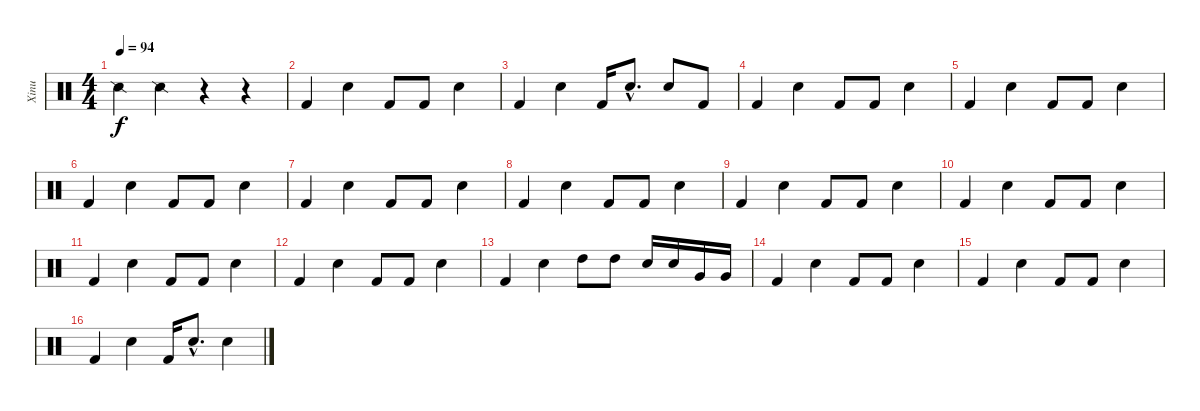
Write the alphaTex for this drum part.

\track ("Xinu" "Xinu") {instrument percussion}
\staff {score}
\articulation defaults
\ts (4 4)
\tempo 94
\clef neutral
\ks c "Snare (side stick) 2".4{dy f} "Snare (side stick) 2".4
r.4 r.4 |
"Kick (hit) 2".4 "Snare (hit) 2".4 "Kick (hit) 2".8 "Kick (hit) 2".8 "Snare (hit) 2".4 |
"Kick (hit) 2".4 "Snare (hit) 2".4 "Kick (hit) 2".16 "Snare (hit) 2"{hac}.8{d} "Snare (hit) 2".8 "Kick (hit) 2".8 |
"Kick (hit) 2".4 "Snare (hit) 2".4 "Kick (hit) 2".8 "Kick (hit) 2".8 "Snare (hit) 2".4 |
"Kick (hit) 2".4 "Snare (hit) 2".4 "Kick (hit) 2".8 "Kick (hit) 2".8 "Snare (hit) 2".4 |
"Kick (hit) 2".4 "Snare (hit) 2".4 "Kick (hit) 2".8 "Kick (hit) 2".8 "Snare (hit) 2".4 |
"Kick (hit) 2".4 "Snare (hit) 2".4 "Kick (hit) 2".8 "Kick (hit) 2".8 "Snare (hit) 2".4 |
"Kick (hit) 2".4 "Snare (hit) 2".4 "Kick (hit) 2".8 "Kick (hit) 2".8 "Snare (hit) 2".4 |
"Kick (hit) 2".4 "Snare (hit) 2".4 "Kick (hit) 2".8 "Kick (hit) 2".8 "Snare (hit) 2".4 |
"Kick (hit) 2".4 "Snare (hit) 2".4 "Kick (hit) 2".8 "Kick (hit) 2".8 "Snare (hit) 2".4 |
"Kick (hit) 2".4 "Snare (hit) 2".4 "Kick (hit) 2".8 "Kick (hit) 2".8 "Snare (hit) 2".4 |
"Kick (hit) 2".4 "Snare (hit) 2".4 "Kick (hit) 2".8 "Kick (hit) 2".8 "Snare (hit) 2".4 |
"Kick (hit) 2".4 "Snare (hit) 2".4 "High Tom (hit)".8 "High Tom (hit)".8 "Electric Snare (hit)".16 "Electric Snare (hit)".16 "Very Low Tom (hit)".16 "Very Low Tom (hit)".16 |
"Kick (hit) 2".4 "Snare (hit) 2".4 "Kick (hit) 2".8 "Kick (hit) 2".8 "Snare (hit) 2".4 |
"Kick (hit) 2".4 "Snare (hit) 2".4 "Kick (hit) 2".8 "Kick (hit) 2".8 "Snare (hit) 2".4 |
"Kick (hit) 2".4 "Snare (hit) 2".4 "Kick (hit) 2".16 "Snare (hit) 2"{hac}.8{d} "Snare (hit) 2".4
